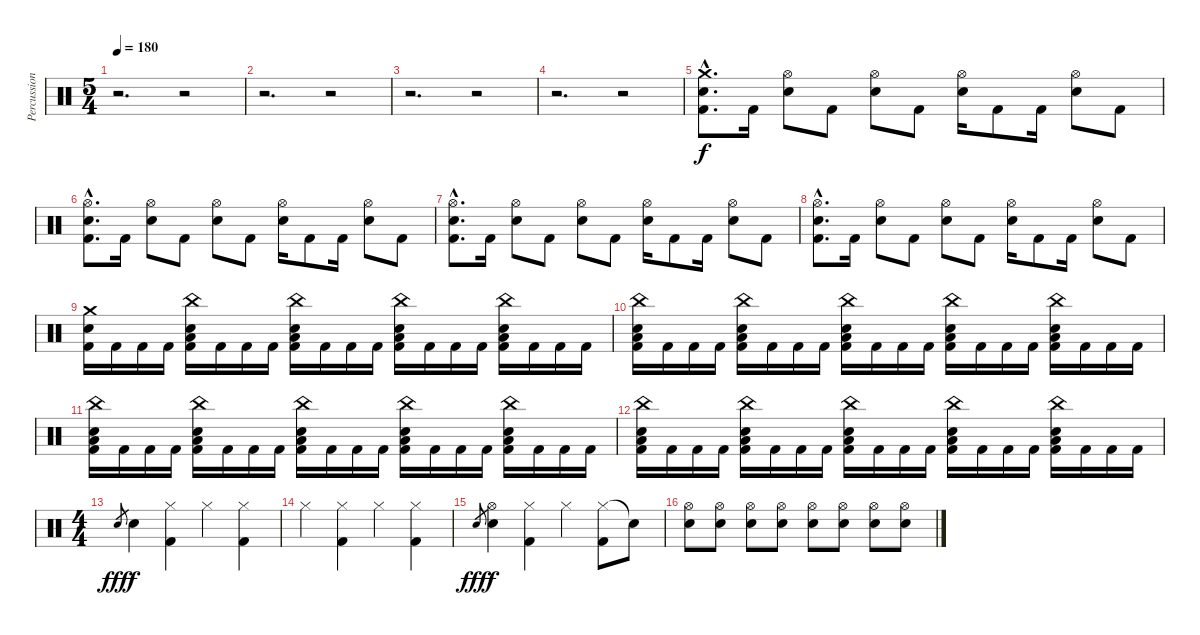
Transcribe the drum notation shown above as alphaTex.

\track ("Percussion" "Percussion") {instrument percussion}
\staff {score}
\articulation defaults
\ts (5 4)
\tempo 180
\clef neutral
\ks c
r.2{d dy f} r.2 |
r.2{d} r.2 |
r.2{d} r.2 |
r.2{d} r.2 |
("Crash medium (hit)"{hac} "Electric Snare (hit)"{hac} "Kick (hit) 2"{hac}).8{d} "Kick (hit) 2".16 ("Hi-Hat (open)" "Electric Snare (hit)").8 "Kick (hit) 2".8 ("Hi-Hat (open)" "Electric Snare (hit)").8 "Kick (hit) 2".8 ("Hi-Hat (open)" "Electric Snare (hit)").16 "Kick (hit) 2".8 "Kick (hit) 2".16 ("Hi-Hat (open)" "Electric Snare (hit)").8 "Kick (hit) 2".8 |
("Hi-Hat (open)"{hac} "Electric Snare (hit)"{hac} "Kick (hit) 2"{hac}).8{d} "Kick (hit) 2".16 ("Hi-Hat (open)" "Electric Snare (hit)").8 "Kick (hit) 2".8 ("Hi-Hat (open)" "Electric Snare (hit)").8 "Kick (hit) 2".8 ("Hi-Hat (open)" "Electric Snare (hit)").16 "Kick (hit) 2".8 "Kick (hit) 2".16 ("Hi-Hat (open)" "Electric Snare (hit)").8 "Kick (hit) 2".8 |
("Hi-Hat (open)"{hac} "Electric Snare (hit)"{hac} "Kick (hit) 2"{hac}).8{d} "Kick (hit) 2".16 ("Hi-Hat (open)" "Electric Snare (hit)").8 "Kick (hit) 2".8 ("Hi-Hat (open)" "Electric Snare (hit)").8 "Kick (hit) 2".8 ("Hi-Hat (open)" "Electric Snare (hit)").16 "Kick (hit) 2".8 "Kick (hit) 2".16 ("Hi-Hat (open)" "Electric Snare (hit)").8 "Kick (hit) 2".8 |
("Hi-Hat (open)"{hac} "Electric Snare (hit)"{hac} "Kick (hit) 2"{hac}).8{d} "Kick (hit) 2".16 ("Hi-Hat (open)" "Electric Snare (hit)").8 "Kick (hit) 2".8 ("Hi-Hat (open)" "Electric Snare (hit)").8 "Kick (hit) 2".8 ("Hi-Hat (open)" "Electric Snare (hit)").16 "Kick (hit) 2".8 "Kick (hit) 2".16 ("Hi-Hat (open)" "Electric Snare (hit)").8 "Kick (hit) 2".8 |
("Crash medium (hit)" "Electric Snare (hit)" "Kick (hit) 2").16 "Kick (hit) 2".16 "Kick (hit) 2".16 "Kick (hit) 2".16 ("Low Tom (hit)" "China (hit)" "Electric Snare (hit)" "Kick (hit) 2").16 "Kick (hit) 2".16 "Kick (hit) 2".16 "Kick (hit) 2".16 ("Low Tom (hit)" "China (hit)" "Electric Snare (hit)" "Kick (hit) 2").16 "Kick (hit) 2".16 "Kick (hit) 2".16 "Kick (hit) 2".16 ("Low Tom (hit)" "China (hit)" "Electric Snare (hit)" "Kick (hit) 2").16 "Kick (hit) 2".16 "Kick (hit) 2".16 "Kick (hit) 2".16 ("Low Tom (hit)" "China (hit)" "Electric Snare (hit)" "Kick (hit) 2").16 "Kick (hit) 2".16 "Kick (hit) 2".16 "Kick (hit) 2".16 |
("Low Tom (hit)" "China (hit)" "Electric Snare (hit)" "Kick (hit) 2").16 "Kick (hit) 2".16 "Kick (hit) 2".16 "Kick (hit) 2".16 ("Low Tom (hit)" "China (hit)" "Electric Snare (hit)" "Kick (hit) 2").16 "Kick (hit) 2".16 "Kick (hit) 2".16 "Kick (hit) 2".16 ("Low Tom (hit)" "China (hit)" "Electric Snare (hit)" "Kick (hit) 2").16 "Kick (hit) 2".16 "Kick (hit) 2".16 "Kick (hit) 2".16 ("Low Tom (hit)" "China (hit)" "Electric Snare (hit)" "Kick (hit) 2").16 "Kick (hit) 2".16 "Kick (hit) 2".16 "Kick (hit) 2".16 ("Low Tom (hit)" "China (hit)" "Electric Snare (hit)" "Kick (hit) 2").16 "Kick (hit) 2".16 "Kick (hit) 2".16 "Kick (hit) 2".16 |
("Low Tom (hit)" "China (hit)" "Electric Snare (hit)" "Kick (hit) 2").16 "Kick (hit) 2".16 "Kick (hit) 2".16 "Kick (hit) 2".16 ("Low Tom (hit)" "China (hit)" "Electric Snare (hit)" "Kick (hit) 2").16 "Kick (hit) 2".16 "Kick (hit) 2".16 "Kick (hit) 2".16 ("Low Tom (hit)" "China (hit)" "Electric Snare (hit)" "Kick (hit) 2").16 "Kick (hit) 2".16 "Kick (hit) 2".16 "Kick (hit) 2".16 ("Low Tom (hit)" "China (hit)" "Electric Snare (hit)" "Kick (hit) 2").16 "Kick (hit) 2".16 "Kick (hit) 2".16 "Kick (hit) 2".16 ("Low Tom (hit)" "China (hit)" "Electric Snare (hit)" "Kick (hit) 2").16 "Kick (hit) 2".16 "Kick (hit) 2".16 "Kick (hit) 2".16 |
("Low Tom (hit)" "China (hit)" "Electric Snare (hit)" "Kick (hit) 2").16 "Kick (hit) 2".16 "Kick (hit) 2".16 "Kick (hit) 2".16 ("Low Tom (hit)" "China (hit)" "Electric Snare (hit)" "Kick (hit) 2").16 "Kick (hit) 2".16 "Kick (hit) 2".16 "Kick (hit) 2".16 ("Low Tom (hit)" "China (hit)" "Electric Snare (hit)" "Kick (hit) 2").16 "Kick (hit) 2".16 "Kick (hit) 2".16 "Kick (hit) 2".16 ("Low Tom (hit)" "China (hit)" "Electric Snare (hit)" "Kick (hit) 2").16 "Kick (hit) 2".16 "Kick (hit) 2".16 "Kick (hit) 2".16 ("Low Tom (hit)" "China (hit)" "Electric Snare (hit)" "Kick (hit) 2").16 "Kick (hit) 2".16 "Kick (hit) 2".16 "Kick (hit) 2".16 |
\ts (4 4)
"Electric Snare (hit)".8{gr dy fff} "Electric Snare (hit)".4{dy f} ("Hi-Hat (closed)" "Kick (hit) 2").4 "Hi-Hat (closed)".4 ("Hi-Hat (closed)" "Kick (hit) 2").4 |
"Hi-Hat (closed)".4 ("Hi-Hat (closed)" "Kick (hit) 2").4 "Hi-Hat (closed)".4 ("Hi-Hat (closed)" "Kick (hit) 2").4 |
"Electric Snare (hit)".8{gr dy fff} ("Hi-Hat (open)" "Electric Snare (hit)").4{dy f} ("Hi-Hat (closed)" "Kick (hit) 2").4 "Hi-Hat (closed)".4 ("Hi-Hat (closed)" "Kick (hit) 2").8 "Snare (hit)"{t}.8{volume 6} |
("Hi-Hat (open)" "Electric Snare (hit)").8{volume 13} ("Hi-Hat (open)" "Electric Snare (hit)").8 ("Hi-Hat (open)" "Electric Snare (hit)").8 ("Hi-Hat (open)" "Electric Snare (hit)").8 ("Hi-Hat (open)" "Electric Snare (hit)").8 ("Hi-Hat (open)" "Electric Snare (hit)").8 ("Hi-Hat (open)" "Electric Snare (hit)").8 ("Hi-Hat (open)" "Electric Snare (hit)").8
